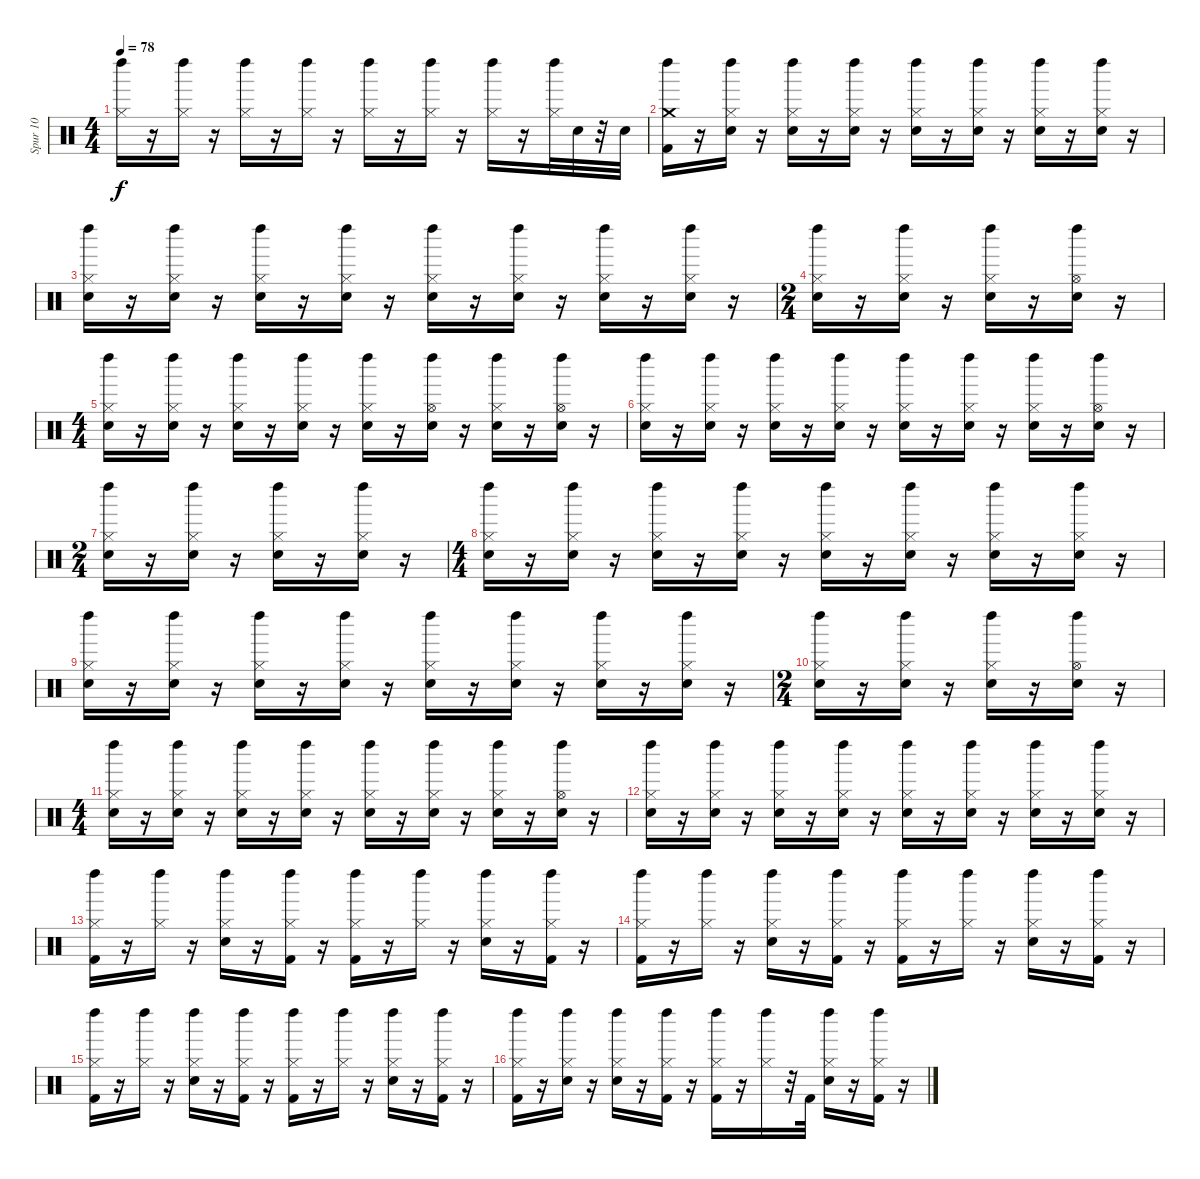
\track ("Spur 10" "Spur 10") {instrument percussion}
\staff {score}
\articulation defaults
\ts (4 4)
\tempo 78
\clef neutral
\ks c
("Left Maraca (hit)" "Hi-Hat (closed)").16{dy f} r.16 ("Left Maraca (hit)" "Hi-Hat (closed)").16 r.16 ("Left Maraca (hit)" "Hi-Hat (closed)").16 r.16 ("Left Maraca (hit)" "Hi-Hat (closed)").16 r.16 ("Left Maraca (hit)" "Hi-Hat (closed)").16 r.16 ("Left Maraca (hit)" "Hi-Hat (closed)").16 r.16 ("Left Maraca (hit)" "Hi-Hat (closed)").16 r.16 ("Left Maraca (hit)" "Hi-Hat (closed)").32 "Snare (hit) 2".32 r.32 "Snare (hit) 2".32 |
("Left Maraca (hit)" "Crash medium (hit)" "Kick (hit) 2").16 r.16 ("Left Maraca (hit)" "Snare (hit) 2" "Hi-Hat (closed)").16 r.16 ("Left Maraca (hit)" "Snare (hit) 2" "Hi-Hat (closed)").16 r.16 ("Left Maraca (hit)" "Snare (hit) 2" "Hi-Hat (closed)").16 r.16 ("Left Maraca (hit)" "Snare (hit) 2" "Hi-Hat (closed)").16 r.16 ("Left Maraca (hit)" "Snare (hit) 2" "Hi-Hat (closed)").16 r.16 ("Left Maraca (hit)" "Snare (hit) 2" "Hi-Hat (closed)").16 r.16 ("Left Maraca (hit)" "Snare (hit) 2" "Hi-Hat (closed)").16 r.16 |
("Left Maraca (hit)" "Snare (hit) 2" "Hi-Hat (closed)").16 r.16 ("Left Maraca (hit)" "Snare (hit) 2" "Hi-Hat (closed)").16 r.16 ("Left Maraca (hit)" "Snare (hit) 2" "Hi-Hat (closed)").16 r.16 ("Left Maraca (hit)" "Snare (hit) 2" "Hi-Hat (closed)").16 r.16 ("Left Maraca (hit)" "Snare (hit) 2" "Hi-Hat (closed)").16 r.16 ("Left Maraca (hit)" "Snare (hit) 2" "Hi-Hat (closed)").16 r.16 ("Left Maraca (hit)" "Snare (hit) 2" "Hi-Hat (closed)").16 r.16 ("Left Maraca (hit)" "Snare (hit) 2" "Hi-Hat (closed)").16 r.16 |
\ts (2 4)
("Left Maraca (hit)" "Snare (hit) 2" "Hi-Hat (closed)").16 r.16 ("Left Maraca (hit)" "Snare (hit) 2" "Hi-Hat (closed)").16 r.16 ("Left Maraca (hit)" "Snare (hit) 2" "Hi-Hat (closed)").16 r.16 ("Left Maraca (hit)" "Snare (hit) 2" "Hi-Hat (open)").16 r.16 |
\ts (4 4)
("Left Maraca (hit)" "Snare (hit) 2" "Hi-Hat (closed)").16 r.16 ("Left Maraca (hit)" "Snare (hit) 2" "Hi-Hat (closed)").16 r.16 ("Left Maraca (hit)" "Snare (hit) 2" "Hi-Hat (closed)").16 r.16 ("Left Maraca (hit)" "Snare (hit) 2" "Hi-Hat (closed)").16 r.16 ("Left Maraca (hit)" "Snare (hit) 2" "Hi-Hat (closed)").16 r.16 ("Left Maraca (hit)" "Snare (hit) 2" "Hi-Hat (open)").16 r.16 ("Left Maraca (hit)" "Snare (hit) 2" "Hi-Hat (closed)").16 r.16 ("Left Maraca (hit)" "Snare (hit) 2" "Hi-Hat (open)").16 r.16 |
("Left Maraca (hit)" "Snare (hit) 2" "Hi-Hat (closed)").16 r.16 ("Left Maraca (hit)" "Snare (hit) 2" "Hi-Hat (closed)").16 r.16 ("Left Maraca (hit)" "Snare (hit) 2" "Hi-Hat (closed)").16 r.16 ("Left Maraca (hit)" "Snare (hit) 2" "Hi-Hat (closed)").16 r.16 ("Left Maraca (hit)" "Snare (hit) 2" "Hi-Hat (closed)").16 r.16 ("Left Maraca (hit)" "Snare (hit) 2" "Hi-Hat (closed)").16 r.16 ("Left Maraca (hit)" "Snare (hit) 2" "Hi-Hat (closed)").16 r.16 ("Left Maraca (hit)" "Snare (hit) 2" "Hi-Hat (open)").16 r.16 |
\ts (2 4)
("Left Maraca (hit)" "Snare (hit) 2" "Hi-Hat (closed)").16 r.16 ("Left Maraca (hit)" "Snare (hit) 2" "Hi-Hat (closed)").16 r.16 ("Left Maraca (hit)" "Snare (hit) 2" "Hi-Hat (closed)").16 r.16 ("Left Maraca (hit)" "Snare (hit) 2" "Hi-Hat (closed)").16 r.16 |
\ts (4 4)
("Left Maraca (hit)" "Snare (hit) 2" "Hi-Hat (closed)").16 r.16 ("Left Maraca (hit)" "Snare (hit) 2" "Hi-Hat (closed)").16 r.16 ("Left Maraca (hit)" "Snare (hit) 2" "Hi-Hat (closed)").16 r.16 ("Left Maraca (hit)" "Snare (hit) 2" "Hi-Hat (closed)").16 r.16 ("Left Maraca (hit)" "Snare (hit) 2" "Hi-Hat (closed)").16 r.16 ("Left Maraca (hit)" "Snare (hit) 2" "Hi-Hat (closed)").16 r.16 ("Left Maraca (hit)" "Snare (hit) 2" "Hi-Hat (closed)").16 r.16 ("Left Maraca (hit)" "Snare (hit) 2" "Hi-Hat (closed)").16 r.16 |
("Left Maraca (hit)" "Snare (hit) 2" "Hi-Hat (closed)").16 r.16 ("Left Maraca (hit)" "Snare (hit) 2" "Hi-Hat (closed)").16 r.16 ("Left Maraca (hit)" "Snare (hit) 2" "Hi-Hat (closed)").16 r.16 ("Left Maraca (hit)" "Snare (hit) 2" "Hi-Hat (closed)").16 r.16 ("Left Maraca (hit)" "Snare (hit) 2" "Hi-Hat (closed)").16 r.16 ("Left Maraca (hit)" "Snare (hit) 2" "Hi-Hat (closed)").16 r.16 ("Left Maraca (hit)" "Snare (hit) 2" "Hi-Hat (closed)").16 r.16 ("Left Maraca (hit)" "Snare (hit) 2" "Hi-Hat (closed)").16 r.16 |
\ts (2 4)
("Left Maraca (hit)" "Snare (hit) 2" "Hi-Hat (closed)").16 r.16 ("Left Maraca (hit)" "Snare (hit) 2" "Hi-Hat (closed)").16 r.16 ("Left Maraca (hit)" "Snare (hit) 2" "Hi-Hat (closed)").16 r.16 ("Left Maraca (hit)" "Snare (hit) 2" "Hi-Hat (open)").16 r.16 |
\ts (4 4)
("Left Maraca (hit)" "Snare (hit) 2" "Hi-Hat (closed)").16 r.16 ("Left Maraca (hit)" "Snare (hit) 2" "Hi-Hat (closed)").16 r.16 ("Left Maraca (hit)" "Snare (hit) 2" "Hi-Hat (closed)").16 r.16 ("Left Maraca (hit)" "Snare (hit) 2" "Hi-Hat (closed)").16 r.16 ("Left Maraca (hit)" "Snare (hit) 2" "Hi-Hat (closed)").16 r.16 ("Left Maraca (hit)" "Snare (hit) 2" "Hi-Hat (closed)").16 r.16 ("Left Maraca (hit)" "Snare (hit) 2" "Hi-Hat (closed)").16 r.16 ("Left Maraca (hit)" "Snare (hit) 2" "Hi-Hat (open)").16 r.16 |
("Left Maraca (hit)" "Snare (hit) 2" "Hi-Hat (closed)").16 r.16 ("Left Maraca (hit)" "Snare (hit) 2" "Hi-Hat (closed)").16 r.16 ("Left Maraca (hit)" "Snare (hit) 2" "Hi-Hat (closed)").16 r.16 ("Left Maraca (hit)" "Snare (hit) 2" "Hi-Hat (closed)").16 r.16 ("Left Maraca (hit)" "Snare (hit) 2" "Hi-Hat (closed)").16 r.16 ("Left Maraca (hit)" "Snare (hit) 2" "Hi-Hat (closed)").16 r.16 ("Left Maraca (hit)" "Snare (hit) 2" "Hi-Hat (closed)").16 r.16 ("Left Maraca (hit)" "Snare (hit) 2" "Hi-Hat (closed)").16 r.16 |
("Left Maraca (hit)" "Kick (hit) 2" "Hi-Hat (closed)").16 r.16 ("Left Maraca (hit)" "Hi-Hat (closed)").16 r.16 ("Left Maraca (hit)" "Snare (hit) 2" "Hi-Hat (closed)").16 r.16 ("Left Maraca (hit)" "Kick (hit) 2" "Hi-Hat (closed)").16 r.16 ("Left Maraca (hit)" "Kick (hit) 2" "Hi-Hat (closed)").16 r.16 ("Left Maraca (hit)" "Hi-Hat (closed)").16 r.16 ("Left Maraca (hit)" "Snare (hit) 2" "Hi-Hat (closed)").16 r.16 ("Left Maraca (hit)" "Kick (hit) 2" "Hi-Hat (closed)").16 r.16 |
("Left Maraca (hit)" "Kick (hit) 2" "Hi-Hat (closed)").16 r.16 ("Left Maraca (hit)" "Hi-Hat (closed)").16 r.16 ("Left Maraca (hit)" "Snare (hit) 2" "Hi-Hat (closed)").16 r.16 ("Left Maraca (hit)" "Kick (hit) 2" "Hi-Hat (closed)").16 r.16 ("Left Maraca (hit)" "Kick (hit) 2" "Hi-Hat (closed)").16 r.16 ("Left Maraca (hit)" "Hi-Hat (closed)").16 r.16 ("Left Maraca (hit)" "Snare (hit) 2" "Hi-Hat (closed)").16 r.16 ("Left Maraca (hit)" "Kick (hit) 2" "Hi-Hat (closed)").16 r.16 |
("Left Maraca (hit)" "Kick (hit) 2" "Hi-Hat (closed)").16 r.16 ("Left Maraca (hit)" "Hi-Hat (closed)").16 r.16 ("Left Maraca (hit)" "Snare (hit) 2" "Hi-Hat (closed)").16 r.16 ("Left Maraca (hit)" "Kick (hit) 2" "Hi-Hat (closed)").16 r.16 ("Left Maraca (hit)" "Kick (hit) 2" "Hi-Hat (closed)").16 r.16 ("Left Maraca (hit)" "Hi-Hat (closed)").16 r.16 ("Left Maraca (hit)" "Snare (hit) 2" "Hi-Hat (closed)").16 r.16 ("Left Maraca (hit)" "Kick (hit) 2" "Hi-Hat (closed)").16 r.16 |
("Left Maraca (hit)" "Kick (hit) 2" "Hi-Hat (closed)").16 r.16 ("Left Maraca (hit)" "Snare (hit) 2" "Hi-Hat (closed)").16 r.16 ("Left Maraca (hit)" "Snare (hit) 2" "Hi-Hat (closed)").16 r.16 ("Left Maraca (hit)" "Kick (hit) 2" "Hi-Hat (closed)").16 r.16 ("Left Maraca (hit)" "Kick (hit) 2" "Hi-Hat (closed)").16 r.16 ("Left Maraca (hit)" "Hi-Hat (closed)").16 r.32 "Kick (hit) 2".32 ("Left Maraca (hit)" "Snare (hit) 2" "Hi-Hat (closed)").16 r.16 ("Left Maraca (hit)" "Kick (hit) 2" "Hi-Hat (closed)").16 r.16
